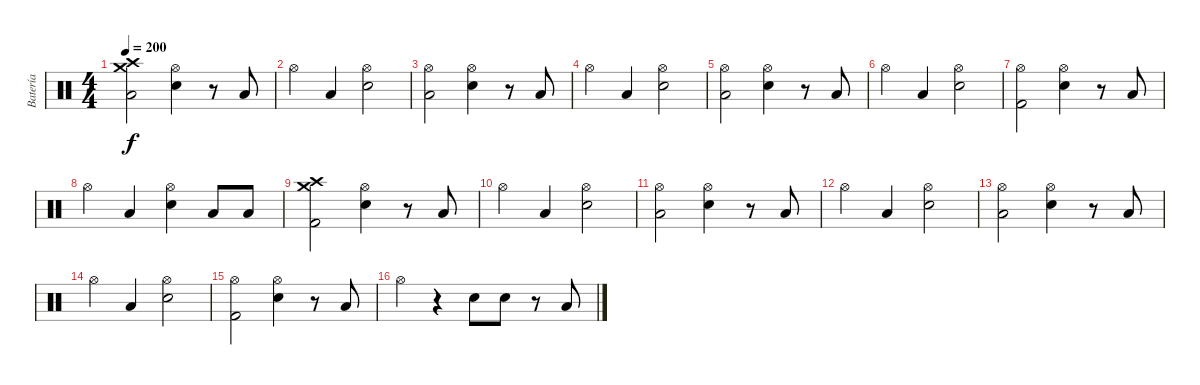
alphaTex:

\track ("Batería" "Batería") {instrument percussion}
\staff {score}
\articulation defaults
\ts (4 4)
\tempo 200
\clef neutral
\ks c
("Crash high (hit)" "Crash medium (hit)" "Low Floor Tom (hit)").2{dy f} ("Hi-Hat (open)" "Electric Snare (hit)").4 r.8 "Low Floor Tom (hit)".8 |
"Hi-Hat (open)".4 "Low Floor Tom (hit)".4 ("Hi-Hat (open)" "Electric Snare (hit)").2 |
("Hi-Hat (open)" "Low Floor Tom (hit)").2 ("Hi-Hat (open)" "Electric Snare (hit)").4 r.8 "Low Floor Tom (hit)".8 |
"Hi-Hat (open)".4 "Low Floor Tom (hit)".4 ("Hi-Hat (open)" "Electric Snare (hit)").2 |
("Hi-Hat (open)" "Low Floor Tom (hit)").2 ("Hi-Hat (open)" "Electric Snare (hit)").4 r.8 "Low Floor Tom (hit)".8 |
"Hi-Hat (open)".4 "Low Floor Tom (hit)".4 ("Hi-Hat (open)" "Electric Snare (hit)").2 |
("Hi-Hat (open)" "Kick (hit) 2").2 ("Hi-Hat (open)" "Electric Snare (hit)").4 r.8 "Low Floor Tom (hit)".8 |
"Hi-Hat (open)".4 "Low Floor Tom (hit)".4 ("Hi-Hat (open)" "Electric Snare (hit)").4 "Low Tom (hit)".8 "Low Tom (hit)".8 |
("Crash high (hit)" "Crash medium (hit)" "Kick (hit) 2").2 ("Hi-Hat (open)" "Electric Snare (hit)").4 r.8 "Low Floor Tom (hit)".8 |
"Hi-Hat (open)".4 "Low Floor Tom (hit)".4 ("Hi-Hat (open)" "Electric Snare (hit)").2 |
("Hi-Hat (open)" "Low Floor Tom (hit)").2 ("Hi-Hat (open)" "Electric Snare (hit)").4 r.8 "Low Floor Tom (hit)".8 |
"Hi-Hat (open)".4 "Low Floor Tom (hit)".4 ("Hi-Hat (open)" "Electric Snare (hit)").2 |
("Hi-Hat (open)" "Low Floor Tom (hit)").2 ("Hi-Hat (open)" "Electric Snare (hit)").4 r.8 "Low Floor Tom (hit)".8 |
"Hi-Hat (open)".4 "Low Floor Tom (hit)".4 ("Hi-Hat (open)" "Electric Snare (hit)").2 |
("Hi-Hat (open)" "Kick (hit) 2").2 ("Hi-Hat (open)" "Electric Snare (hit)").4 r.8 "Low Floor Tom (hit)".8 |
"Hi-Hat (open)".4 r.4 "Electric Snare (hit)".8 "Electric Snare (hit)".8 r.8 "Low Tom (hit)".8
